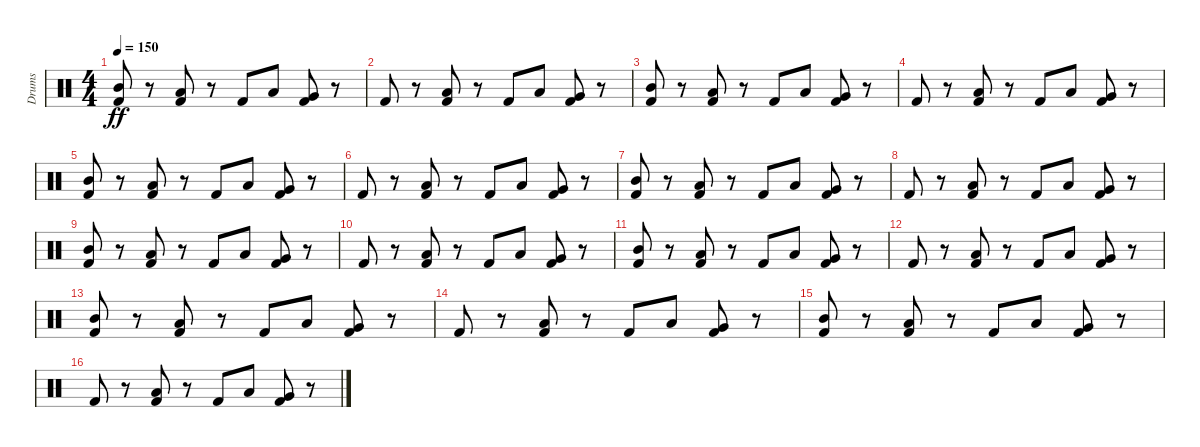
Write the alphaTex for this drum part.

\track ("Drums" "Drums") {instrument percussion}
\staff {score}
\articulation defaults
\ts (4 4)
\tempo 150
\clef neutral
\ks c
("Kick (hit) 2" "Mid Tom (hit)").8{dy ff} r.8 ("Kick (hit) 2" "Low Tom (hit)").8 r.8 "Kick (hit) 2".8 "Low Tom (hit)".8 ("Kick (hit) 2" "Very Low Tom (hit)").8 r.8 |
"Kick (hit) 2".8 r.8 ("Kick (hit) 2" "Low Tom (hit)").8 r.8 "Kick (hit) 2".8 "Low Tom (hit)".8 ("Kick (hit) 2" "Very Low Tom (hit)").8 r.8 |
("Mid Tom (hit)" "Kick (hit) 2").8 r.8 ("Kick (hit) 2" "Low Tom (hit)").8 r.8 "Kick (hit) 2".8 "Low Tom (hit)".8 ("Kick (hit) 2" "Very Low Tom (hit)").8 r.8 |
"Kick (hit) 2".8 r.8 ("Low Tom (hit)" "Kick (hit) 2").8 r.8 "Kick (hit) 2".8 "Low Tom (hit)".8 ("Very Low Tom (hit)" "Kick (hit) 2").8 r.8 |
("Mid Tom (hit)" "Kick (hit) 2").8 r.8 ("Low Tom (hit)" "Kick (hit) 2").8 r.8 "Kick (hit) 2".8 "Low Tom (hit)".8 ("Very Low Tom (hit)" "Kick (hit) 2").8 r.8 |
"Kick (hit) 2".8 r.8 ("Low Tom (hit)" "Kick (hit) 2").8 r.8 "Kick (hit) 2".8 "Low Tom (hit)".8 ("Very Low Tom (hit)" "Kick (hit) 2").8 r.8 |
("Kick (hit) 2" "Mid Tom (hit)").8 r.8 ("Low Tom (hit)" "Kick (hit) 2").8 r.8 "Kick (hit) 2".8 "Low Tom (hit)".8 ("Very Low Tom (hit)" "Kick (hit) 2").8 r.8 |
"Kick (hit) 2".8 r.8 ("Kick (hit) 2" "Low Tom (hit)").8 r.8 "Kick (hit) 2".8 "Low Tom (hit)".8 ("Kick (hit) 2" "Very Low Tom (hit)").8 r.8 |
("Kick (hit) 2" "Mid Tom (hit)").8 r.8 ("Kick (hit) 2" "Low Tom (hit)").8 r.8 "Kick (hit) 2".8 "Low Tom (hit)".8 ("Kick (hit) 2" "Very Low Tom (hit)").8 r.8 |
"Kick (hit) 2".8 r.8 ("Kick (hit) 2" "Low Tom (hit)").8 r.8 "Kick (hit) 2".8 "Low Tom (hit)".8 ("Kick (hit) 2" "Very Low Tom (hit)").8 r.8 |
("Mid Tom (hit)" "Kick (hit) 2").8 r.8 ("Kick (hit) 2" "Low Tom (hit)").8 r.8 "Kick (hit) 2".8 "Low Tom (hit)".8 ("Kick (hit) 2" "Very Low Tom (hit)").8 r.8 |
"Kick (hit) 2".8 r.8 ("Low Tom (hit)" "Kick (hit) 2").8 r.8 "Kick (hit) 2".8 "Low Tom (hit)".8 ("Very Low Tom (hit)" "Kick (hit) 2").8 r.8 |
("Mid Tom (hit)" "Kick (hit) 2").8 r.8 ("Low Tom (hit)" "Kick (hit) 2").8 r.8 "Kick (hit) 2".8 "Low Tom (hit)".8 ("Very Low Tom (hit)" "Kick (hit) 2").8 r.8 |
"Kick (hit) 2".8 r.8 ("Low Tom (hit)" "Kick (hit) 2").8 r.8 "Kick (hit) 2".8 "Low Tom (hit)".8 ("Very Low Tom (hit)" "Kick (hit) 2").8 r.8 |
("Kick (hit) 2" "Mid Tom (hit)").8 r.8 ("Low Tom (hit)" "Kick (hit) 2").8 r.8 "Kick (hit) 2".8 "Low Tom (hit)".8 ("Very Low Tom (hit)" "Kick (hit) 2").8 r.8 |
"Kick (hit) 2".8 r.8 ("Kick (hit) 2" "Low Tom (hit)").8 r.8 "Kick (hit) 2".8 "Low Tom (hit)".8 ("Kick (hit) 2" "Very Low Tom (hit)").8 r.8
